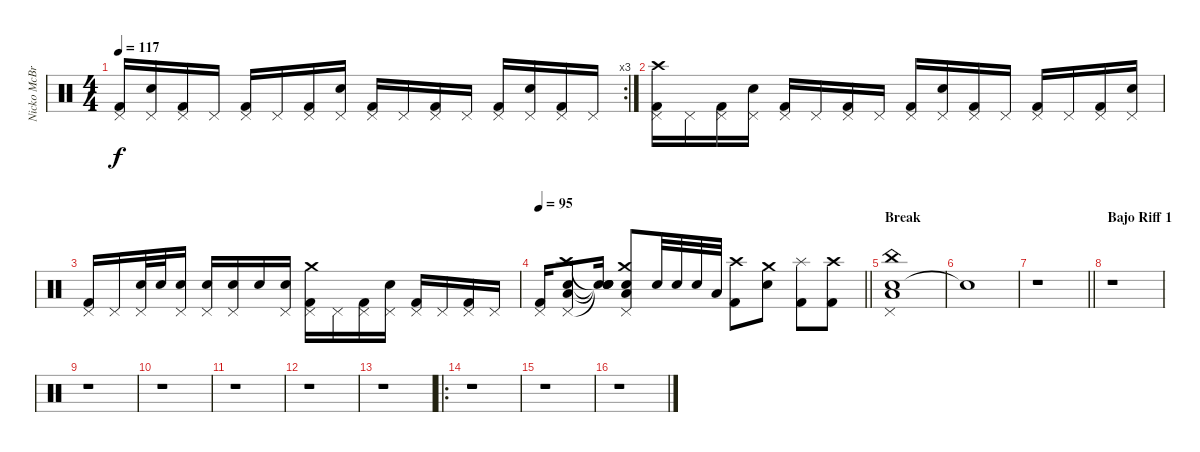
\track ("Nicko McBrain" "Nicko McBr") {instrument percussion}
\staff {score}
\articulation defaults
\rc 3
\ts (4 4)
\tempo 117
\clef neutral
\ks c
("Kick (hit) 2" "Pedal Hi-Hat (hit)").16{dy f} ("Snare (hit) 2" "Pedal Hi-Hat (hit)").16 ("Kick (hit) 2" "Pedal Hi-Hat (hit)").16 "Pedal Hi-Hat (hit)".16 ("Kick (hit) 2" "Pedal Hi-Hat (hit)").16 "Pedal Hi-Hat (hit)".16 ("Kick (hit) 2" "Pedal Hi-Hat (hit)").16 ("Snare (hit) 2" "Pedal Hi-Hat (hit)").16 ("Kick (hit) 2" "Pedal Hi-Hat (hit)").16 "Pedal Hi-Hat (hit)".16 ("Kick (hit) 2" "Pedal Hi-Hat (hit)").16 "Pedal Hi-Hat (hit)".16 ("Kick (hit) 2" "Pedal Hi-Hat (hit)").16 ("Snare (hit) 2" "Pedal Hi-Hat (hit)").16 ("Kick (hit) 2" "Pedal Hi-Hat (hit)").16 "Pedal Hi-Hat (hit)".16 |
("Kick (hit) 2" "Pedal Hi-Hat (hit)" "Crash high (hit)").16 "Pedal Hi-Hat (hit)".16 ("Kick (hit) 2" "Pedal Hi-Hat (hit)").16 ("Snare (hit) 2" "Pedal Hi-Hat (hit)").16 ("Kick (hit) 2" "Pedal Hi-Hat (hit)").16 "Pedal Hi-Hat (hit)".16 ("Kick (hit) 2" "Pedal Hi-Hat (hit)").16 "Pedal Hi-Hat (hit)".16 ("Kick (hit) 2" "Pedal Hi-Hat (hit)").16 ("Snare (hit) 2" "Pedal Hi-Hat (hit)").16 ("Kick (hit) 2" "Pedal Hi-Hat (hit)").16 "Pedal Hi-Hat (hit)".16 ("Kick (hit) 2" "Pedal Hi-Hat (hit)").16 "Pedal Hi-Hat (hit)".16 ("Kick (hit) 2" "Pedal Hi-Hat (hit)").16 ("Snare (hit) 2" "Pedal Hi-Hat (hit)").16 |
("Kick (hit) 2" "Pedal Hi-Hat (hit)").16 "Pedal Hi-Hat (hit)".16 ("Snare (hit) 2" "Pedal Hi-Hat (hit)").32 "Snare (hit) 2".32 ("Snare (hit) 2" "Pedal Hi-Hat (hit)").16 ("Snare (hit) 2" "Pedal Hi-Hat (hit)").16 ("Snare (hit) 2" "Pedal Hi-Hat (hit)").16 "Snare (hit) 2".16 ("Snare (hit) 2" "Pedal Hi-Hat (hit)").16 ("Kick (hit) 2" "Pedal Hi-Hat (hit)" "Crash medium (hit)").16 "Pedal Hi-Hat (hit)".16 ("Kick (hit) 2" "Pedal Hi-Hat (hit)").16 ("Snare (hit) 2" "Pedal Hi-Hat (hit)").16 ("Kick (hit) 2" "Pedal Hi-Hat (hit)").16 "Pedal Hi-Hat (hit)".16 ("Kick (hit) 2" "Pedal Hi-Hat (hit)").16 "Pedal Hi-Hat (hit)".16 |
\tempo 95
\barLineRight lightlight
("Kick (hit) 2" "Pedal Hi-Hat (hit)").16 ("Snare (hit) 2" "Low Floor Tom (hit)" "Pedal Hi-Hat (hit)" "Crash high (hit)").8 ("Snare (hit)"{t} "Snare (hit)"{t} "Snare (hit)"{t} "Snare (hit)"{t}).16 ("Snare (hit) 2" "Low Floor Tom (hit)" "Pedal Hi-Hat (hit)" "Crash medium (hit)").8 "Snare (hit) 2".32 "Snare (hit) 2".32 "Snare (hit) 2".32 "Low Floor Tom (hit)".32 ("Kick (hit) 2" "Crash high (hit)").8 ("Snare (hit) 2" "Crash medium (hit)").8 ("Kick (hit) 2" "Splash (hit)").8 ("Kick (hit) 2" "Crash high (hit)").8 |
\section ("" "Break")
("Snare (hit) 2" "Low Floor Tom (hit)" "Pedal Hi-Hat (hit)" "China (hit)").1 |
"Snare (hit)"{t}.1 |
\barLineRight lightlight
r.1 |
\section ("" "Bajo Riff 1")
r.1 |
r.1 |
r.1 |
r.1 |
r.1 |
r.1 |
\ro
r.1 |
r.1 |
r.1
